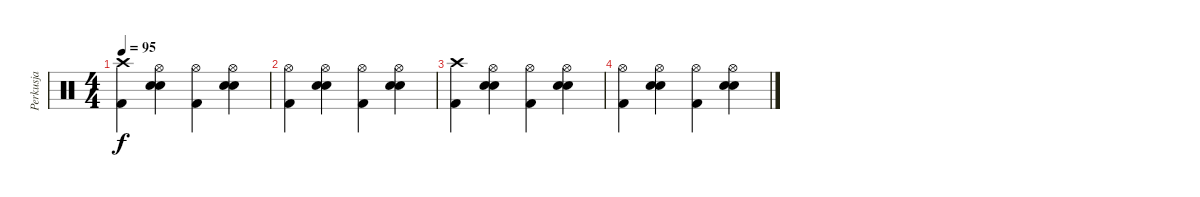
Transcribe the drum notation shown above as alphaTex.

\track ("Perkusja" "Perkusja") {instrument percussion}
\staff {score}
\articulation defaults
\ts (4 4)
\tempo 95
\clef neutral
\ks c
("Crash high (hit)" "Kick (hit) 2").4{dy f} ("Hi-Hat (open)" "Electric Snare (hit)" "Snare (hit) 2").4 ("Hi-Hat (open)" "Kick (hit) 2").4 ("Hi-Hat (open)" "Electric Snare (hit)" "Snare (hit) 2").4 |
("Hi-Hat (open)" "Kick (hit) 2").4 ("Hi-Hat (open)" "Electric Snare (hit)" "Snare (hit) 2").4 ("Hi-Hat (open)" "Kick (hit) 2").4 ("Hi-Hat (open)" "Electric Snare (hit)" "Snare (hit) 2").4 |
("Crash high (hit)" "Kick (hit) 2").4 ("Hi-Hat (open)" "Electric Snare (hit)" "Snare (hit) 2").4 ("Hi-Hat (open)" "Kick (hit) 2").4 ("Hi-Hat (open)" "Electric Snare (hit)" "Snare (hit) 2").4 |
("Hi-Hat (open)" "Kick (hit) 2").4 ("Hi-Hat (open)" "Electric Snare (hit)" "Snare (hit) 2").4 ("Hi-Hat (open)" "Kick (hit) 2").4 ("Hi-Hat (open)" "Electric Snare (hit)" "Snare (hit) 2").4
